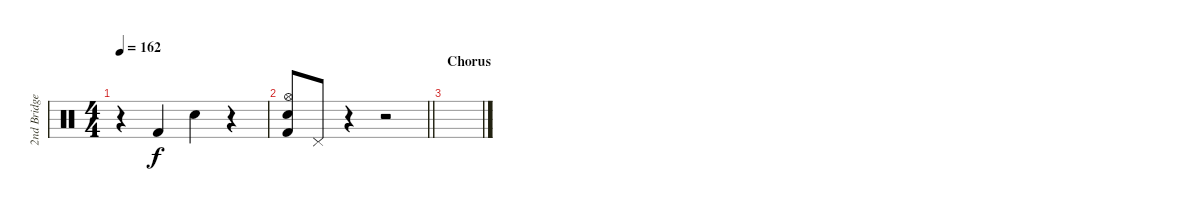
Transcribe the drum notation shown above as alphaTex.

\track ("2nd Bridge Drums" "2nd Bridge") {instrument percussion}
\staff {score}
\articulation defaults
\ts (4 4)
\tempo 162
\clef neutral
\ks c
r.4{dy f} "Kick (hit) 2".4 "Snare (hit) 2".4 r.4 |
\barLineRight lightlight
("Hi-Hat (open)" "Electric Snare (hit)" "Kick (hit) 2").8 "Pedal Hi-Hat (hit)".8 r.4 r.2 |
\section ("" "Chorus")
